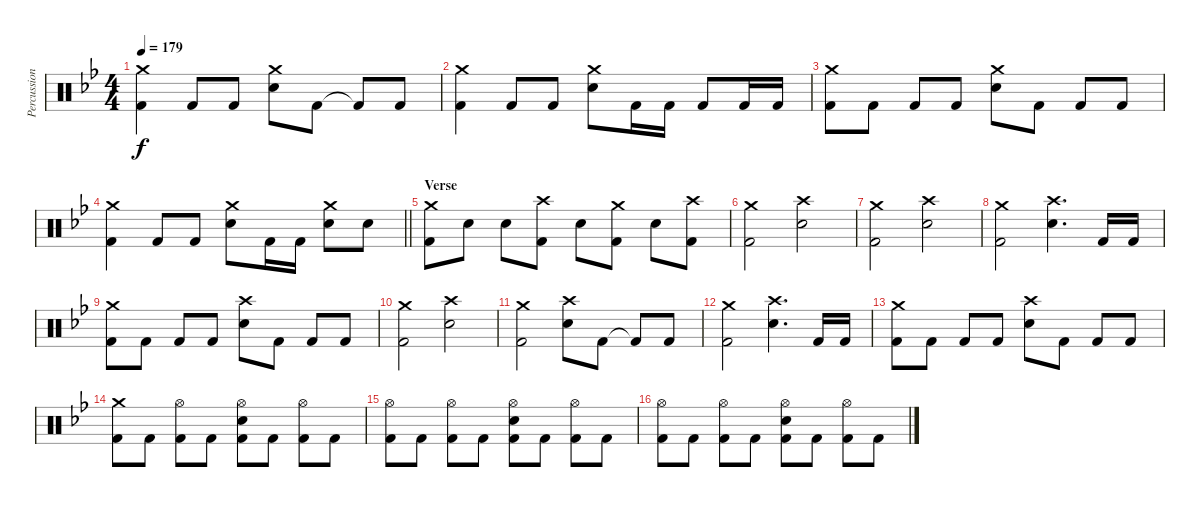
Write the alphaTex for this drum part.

\track ("Percussion" "Percussion") {instrument percussion}
\staff {score}
\articulation defaults
\ts (4 4)
\tempo 179
\clef neutral
\ks bb
("Crash medium (hit)" "Kick (hit) 2").4{dy f} "Kick (hit) 2".8 "Kick (hit) 2".8 ("Crash medium (hit)" "Electric Snare (hit)").8 "Kick (hit) 2".8 "Kick (hit) 2"{t}.8 "Kick (hit) 2".8 |
("Crash medium (hit)" "Kick (hit) 2").4 "Kick (hit) 2".8 "Kick (hit) 2".8 ("Crash medium (hit)" "Electric Snare (hit)").8 "Kick (hit) 2".16 "Kick (hit) 2".16 "Kick (hit) 2".8 "Kick (hit) 2".16 "Kick (hit) 2".16 |
("Crash medium (hit)" "Kick (hit) 2").8 "Kick (hit) 2".8 "Kick (hit) 2".8 "Kick (hit) 2".8 ("Crash medium (hit)" "Electric Snare (hit)").8 "Kick (hit) 2".8 "Kick (hit) 2".8 "Kick (hit) 2".8 |
\barLineRight lightlight
("Crash medium (hit)" "Kick (hit) 2").4 "Kick (hit) 2".8 "Kick (hit) 2".8 ("Crash medium (hit)" "Electric Snare (hit)").8 "Kick (hit) 2".16 "Kick (hit) 2".16 ("Crash medium (hit)" "Electric Snare (hit)").8 "Electric Snare (hit)".8 |
\section ("" "Verse")
("Crash medium (hit)" "Kick (hit) 2").8 "Electric Snare (hit)".8 "Electric Snare (hit)".8 ("Crash high (hit)" "Kick (hit) 2").8 "Electric Snare (hit)".8 ("Crash medium (hit)" "Kick (hit) 2").8 "Electric Snare (hit)".8 ("Crash high (hit)" "Kick (hit) 2").8 |
("Crash medium (hit)" "Kick (hit) 2").2 ("Crash high (hit)" "Electric Snare (hit)").2 |
("Crash medium (hit)" "Kick (hit) 2").2 ("Crash high (hit)" "Electric Snare (hit)").2 |
("Crash medium (hit)" "Kick (hit) 2").2 ("Crash high (hit)" "Electric Snare (hit)").4{d} "Kick (hit) 2".16 "Kick (hit) 2".16 |
("Crash medium (hit)" "Kick (hit) 2").8 "Kick (hit) 2".8 "Kick (hit) 2".8 "Kick (hit) 2".8 ("Crash high (hit)" "Electric Snare (hit)").8 "Kick (hit) 2".8 "Kick (hit) 2".8 "Kick (hit) 2".8 |
("Crash medium (hit)" "Kick (hit) 2").2 ("Crash high (hit)" "Electric Snare (hit)").2 |
("Crash medium (hit)" "Kick (hit) 2").2 ("Crash high (hit)" "Electric Snare (hit)").8 "Kick (hit) 2".8 "Kick (hit) 2"{t}.8 "Kick (hit) 2".8 |
("Crash medium (hit)" "Kick (hit) 2").2 ("Crash high (hit)" "Electric Snare (hit)").4{d} "Kick (hit) 2".16 "Kick (hit) 2".16 |
("Crash medium (hit)" "Kick (hit) 2").8 "Kick (hit) 2".8 "Kick (hit) 2".8 "Kick (hit) 2".8 ("Crash high (hit)" "Electric Snare (hit)").8 "Kick (hit) 2".8 "Kick (hit) 2".8 "Kick (hit) 2".8 |
("Crash medium (hit)" "Kick (hit) 2").8 "Kick (hit) 2".8 ("Hi-Hat (open)" "Kick (hit) 2").8 "Kick (hit) 2".8 ("Hi-Hat (open)" "Electric Snare (hit)" "Kick (hit) 2").8 "Kick (hit) 2".8 ("Hi-Hat (open)" "Kick (hit) 2").8 "Kick (hit) 2".8 |
("Hi-Hat (open)" "Kick (hit) 2").8 "Kick (hit) 2".8 ("Hi-Hat (open)" "Kick (hit) 2").8 "Kick (hit) 2".8 ("Hi-Hat (open)" "Electric Snare (hit)" "Kick (hit) 2").8 "Kick (hit) 2".8 ("Hi-Hat (open)" "Kick (hit) 2").8 "Kick (hit) 2".8 |
("Hi-Hat (open)" "Kick (hit) 2").8 "Kick (hit) 2".8 ("Hi-Hat (open)" "Kick (hit) 2").8 "Kick (hit) 2".8 ("Hi-Hat (open)" "Electric Snare (hit)" "Kick (hit) 2").8 "Kick (hit) 2".8 ("Hi-Hat (open)" "Kick (hit) 2").8 "Kick (hit) 2".8
